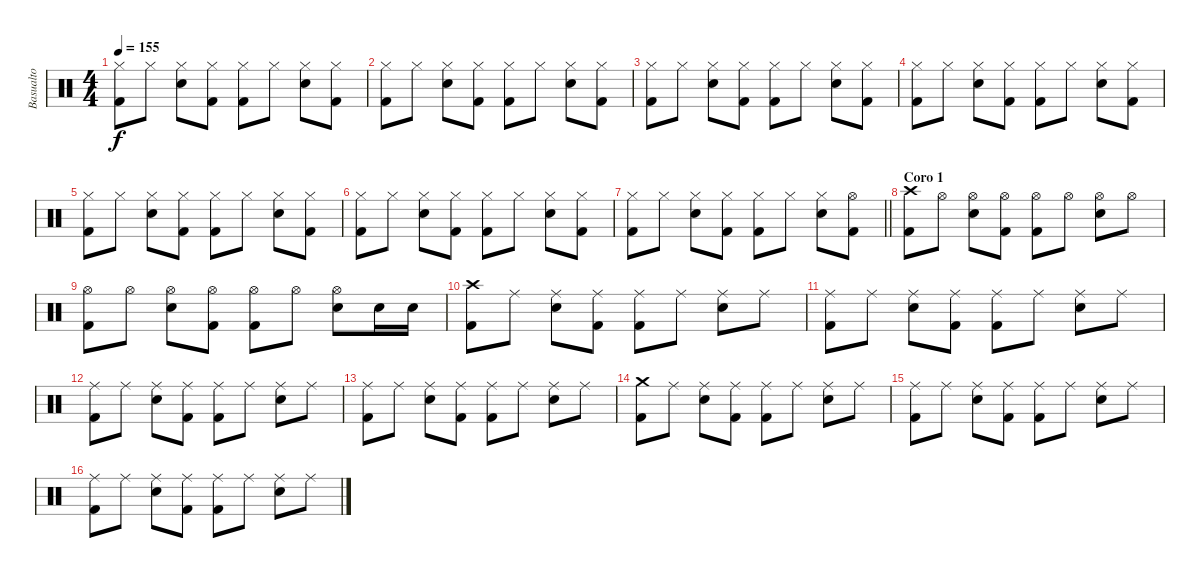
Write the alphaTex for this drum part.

\track ("Basualto" "Basualto") {instrument percussion}
\staff {score}
\articulation defaults
\ts (4 4)
\tempo 155
\clef neutral
\ks c
("Hi-Hat (closed)" "Kick (hit) 2").8{dy f} "Hi-Hat (closed)".8 ("Hi-Hat (closed)" "Electric Snare (hit)").8 ("Hi-Hat (closed)" "Kick (hit) 2").8 ("Hi-Hat (closed)" "Kick (hit) 2").8 "Hi-Hat (closed)".8 ("Hi-Hat (closed)" "Electric Snare (hit)").8 ("Hi-Hat (closed)" "Kick (hit) 2").8 |
("Hi-Hat (closed)" "Kick (hit) 2").8 "Hi-Hat (closed)".8 ("Hi-Hat (closed)" "Electric Snare (hit)").8 ("Hi-Hat (closed)" "Kick (hit) 2").8 ("Hi-Hat (closed)" "Kick (hit) 2").8 "Hi-Hat (closed)".8 ("Hi-Hat (closed)" "Electric Snare (hit)").8 ("Hi-Hat (closed)" "Kick (hit) 2").8 |
("Hi-Hat (closed)" "Kick (hit) 2").8 "Hi-Hat (closed)".8 ("Hi-Hat (closed)" "Electric Snare (hit)").8 ("Hi-Hat (closed)" "Kick (hit) 2").8 ("Hi-Hat (closed)" "Kick (hit) 2").8 "Hi-Hat (closed)".8 ("Hi-Hat (closed)" "Electric Snare (hit)").8 ("Hi-Hat (closed)" "Kick (hit) 2").8 |
("Hi-Hat (closed)" "Kick (hit) 2").8 "Hi-Hat (closed)".8 ("Hi-Hat (closed)" "Electric Snare (hit)").8 ("Hi-Hat (closed)" "Kick (hit) 2").8 ("Hi-Hat (closed)" "Kick (hit) 2").8 "Hi-Hat (closed)".8 ("Hi-Hat (closed)" "Electric Snare (hit)").8 ("Hi-Hat (closed)" "Kick (hit) 2").8 |
("Hi-Hat (closed)" "Kick (hit) 2").8 "Hi-Hat (closed)".8 ("Hi-Hat (closed)" "Electric Snare (hit)").8 ("Hi-Hat (closed)" "Kick (hit) 2").8 ("Hi-Hat (closed)" "Kick (hit) 2").8 "Hi-Hat (closed)".8 ("Hi-Hat (closed)" "Electric Snare (hit)").8 ("Hi-Hat (closed)" "Kick (hit) 2").8 |
("Hi-Hat (closed)" "Kick (hit) 2").8 "Hi-Hat (closed)".8 ("Hi-Hat (closed)" "Electric Snare (hit)").8 ("Hi-Hat (closed)" "Kick (hit) 2").8 ("Hi-Hat (closed)" "Kick (hit) 2").8 "Hi-Hat (closed)".8 ("Hi-Hat (closed)" "Electric Snare (hit)").8 ("Hi-Hat (closed)" "Kick (hit) 2").8 |
\barLineRight lightlight
("Hi-Hat (closed)" "Kick (hit) 2").8 "Hi-Hat (closed)".8 ("Hi-Hat (closed)" "Electric Snare (hit)").8 ("Hi-Hat (closed)" "Kick (hit) 2").8 ("Hi-Hat (closed)" "Kick (hit) 2").8 "Hi-Hat (closed)".8 ("Hi-Hat (closed)" "Electric Snare (hit)").8 ("Hi-Hat (open)" "Kick (hit) 2").8 |
\section ("" "Coro 1")
("Crash high (hit)" "Kick (hit) 2").8 "Hi-Hat (open)".8 ("Hi-Hat (open)" "Electric Snare (hit)").8 ("Hi-Hat (open)" "Kick (hit) 2").8 ("Hi-Hat (open)" "Kick (hit) 2").8 "Hi-Hat (open)".8 ("Hi-Hat (open)" "Electric Snare (hit)").8 "Hi-Hat (open)".8 |
("Hi-Hat (open)" "Kick (hit) 2").8 "Hi-Hat (open)".8 ("Hi-Hat (open)" "Electric Snare (hit)").8 ("Hi-Hat (open)" "Kick (hit) 2").8 ("Hi-Hat (open)" "Kick (hit) 2").8 "Hi-Hat (open)".8 ("Hi-Hat (open)" "Electric Snare (hit)").8 "Electric Snare (hit)".16 "Electric Snare (hit)".16 |
("Crash high (hit)" "Kick (hit) 2").8 "Ride (middle)".8 ("Ride (middle)" "Electric Snare (hit)").8 ("Ride (middle)" "Kick (hit) 2").8 ("Ride (middle)" "Kick (hit) 2").8 "Ride (middle)".8 ("Ride (middle)" "Electric Snare (hit)").8 "Ride (middle)".8 |
("Ride (middle)" "Kick (hit) 2").8 "Ride (middle)".8 ("Ride (middle)" "Electric Snare (hit)").8 ("Ride (middle)" "Kick (hit) 2").8 ("Ride (middle)" "Kick (hit) 2").8 "Ride (middle)".8 ("Ride (middle)" "Electric Snare (hit)").8 "Ride (middle)".8 |
("Ride (middle)" "Kick (hit) 2").8 "Ride (middle)".8 ("Ride (middle)" "Electric Snare (hit)").8 ("Ride (middle)" "Kick (hit) 2").8 ("Ride (middle)" "Kick (hit) 2").8 "Ride (middle)".8 ("Ride (middle)" "Electric Snare (hit)").8 "Ride (middle)".8 |
("Ride (middle)" "Kick (hit) 2").8 "Ride (middle)".8 ("Ride (middle)" "Electric Snare (hit)").8 ("Ride (middle)" "Kick (hit) 2").8 ("Ride (middle)" "Kick (hit) 2").8 "Ride (middle)".8 ("Ride (middle)" "Electric Snare (hit)").8 "Ride (middle)".8 |
("Crash medium (hit)" "Kick (hit) 2").8 "Ride (middle)".8 ("Ride (middle)" "Electric Snare (hit)").8 ("Ride (middle)" "Kick (hit) 2").8 ("Ride (middle)" "Kick (hit) 2").8 "Ride (middle)".8 ("Ride (middle)" "Electric Snare (hit)").8 "Ride (middle)".8 |
("Ride (middle)" "Kick (hit) 2").8 "Ride (middle)".8 ("Ride (middle)" "Electric Snare (hit)").8 ("Ride (middle)" "Kick (hit) 2").8 ("Ride (middle)" "Kick (hit) 2").8 "Ride (middle)".8 ("Ride (middle)" "Electric Snare (hit)").8 "Ride (middle)".8 |
("Ride (middle)" "Kick (hit) 2").8 "Ride (middle)".8 ("Ride (middle)" "Electric Snare (hit)").8 ("Ride (middle)" "Kick (hit) 2").8 ("Ride (middle)" "Kick (hit) 2").8 "Ride (middle)".8 ("Ride (middle)" "Electric Snare (hit)").8 "Ride (middle)".8
